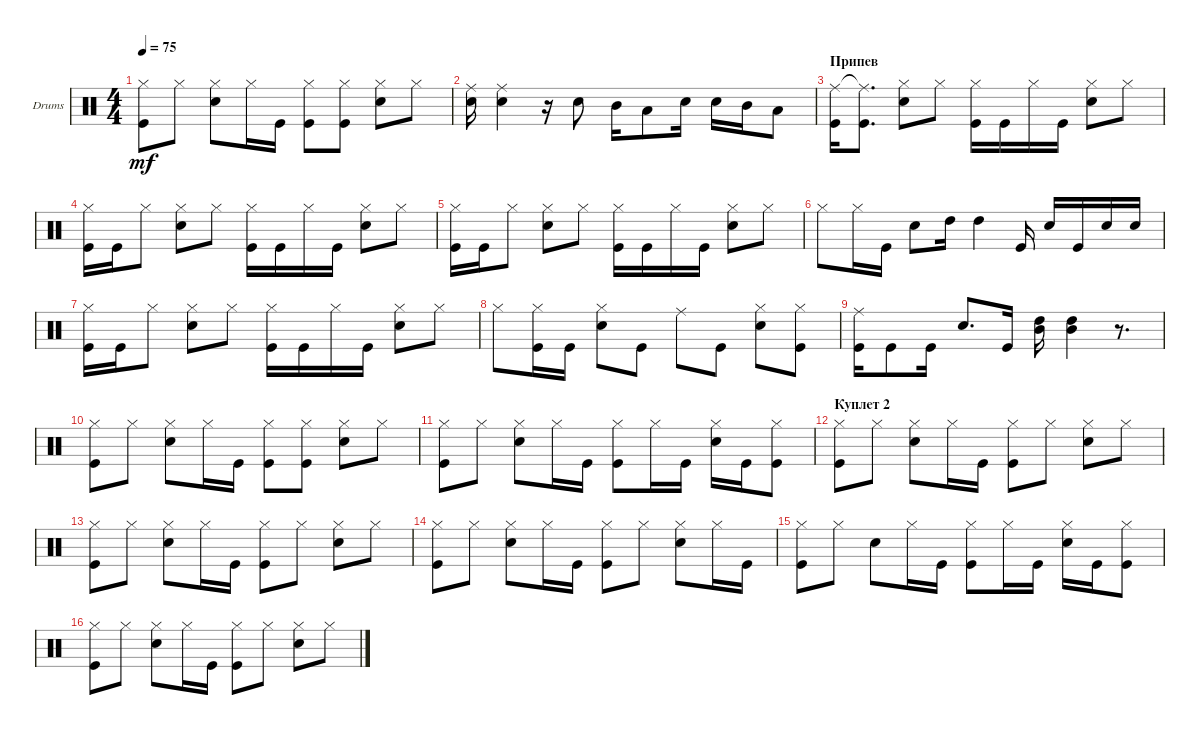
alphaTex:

\defaultSystemsLayout 4
\bracketExtendMode groupsimilarinstruments
\firstSystemTrackNameOrientation horizontal
\otherSystemsTrackNameOrientation horizontal
\track ("Барабаны" "Drums") {solo instrument percussion}
\staff {score}
\articulation defaults
\ts (4 4)
\tempo 75
\clef neutral
\ks c
("Kick (hit)" "Hi-Hat (closed)").8{dy mf} "Hi-Hat (closed)".8 ("Snare (hit) 2" "Hi-Hat (closed)").8 "Hi-Hat (closed)".16 "Kick (hit)".16 ("Kick (hit)" "Hi-Hat (closed)").8 ("Kick (hit)" "Hi-Hat (closed)").8 ("Snare (hit) 2" "Hi-Hat (closed)").8 "Hi-Hat (closed)".8 |
("Snare (hit) 2" "Ride (middle)").16 ("Snare (hit) 2" "Ride (middle)").4 r.16 "Snare (hit) 2".8 "Mid Tom (hit)".16 "Low Tom (hit)".8 "Snare (hit) 2".16 "Snare (hit) 2".16 "Mid Tom (hit)".16 "Low Tom (hit)".8 |
\section ("" "Припев")
\scale
0.321839 ("Kick (hit)" "Ride (middle)").16 ("Kick (hit)" "Ride (middle)"{t}).8{d} ("Snare (hit) 2" "Hi-Hat (closed)").8 "Hi-Hat (closed)".8 ("Kick (hit)" "Hi-Hat (closed)").16 "Kick (hit)".16 "Hi-Hat (closed)".16 "Kick (hit)".16 ("Snare (hit) 2" "Hi-Hat (closed)").8 "Hi-Hat (closed)".8 |
\scale
0.333333 ("Kick (hit)" "Hi-Hat (closed)").16 "Kick (hit)".16 "Hi-Hat (closed)".8 ("Snare (hit) 2" "Hi-Hat (closed)").8 "Hi-Hat (closed)".8 ("Kick (hit)" "Hi-Hat (closed)").16 "Kick (hit)".16 "Hi-Hat (closed)".16 "Kick (hit)".16 ("Snare (hit) 2" "Hi-Hat (closed)").8 "Hi-Hat (closed)".8 |
\scale
0.333333 ("Kick (hit)" "Hi-Hat (closed)").16 "Kick (hit)".16 "Hi-Hat (closed)".8 ("Snare (hit) 2" "Hi-Hat (closed)").8 "Hi-Hat (closed)".8 ("Kick (hit)" "Hi-Hat (closed)").16 "Kick (hit)".16 "Hi-Hat (closed)".16 "Kick (hit)".16 ("Snare (hit) 2" "Hi-Hat (closed)").8 "Hi-Hat (closed)".8 |
\scale
0.333333 "Hi-Hat (closed)".8 "Hi-Hat (closed)".16 "Kick (hit)".16 "Snare (hit) 2".8 "High Tom (hit)".16 "High Tom (hit)".4 "Kick (hit)".16 "Snare (hit) 2".16 "Kick (hit)".16 "Snare (hit) 2".16 "Snare (hit) 2".16 |
\scale
0.333333 ("Kick (hit)" "Hi-Hat (closed)").16 "Kick (hit)".16 "Hi-Hat (closed)".8 ("Snare (hit) 2" "Hi-Hat (closed)").8 "Hi-Hat (closed)".8 ("Kick (hit)" "Hi-Hat (closed)").16 "Kick (hit)".16 "Hi-Hat (closed)".16 "Kick (hit)".16 ("Snare (hit) 2" "Hi-Hat (closed)").8 "Hi-Hat (closed)".8 |
\scale
0.333333 "Hi-Hat (closed)".8 ("Kick (hit)" "Hi-Hat (closed)").16 "Kick (hit)".16 ("Snare (hit) 2" "Hi-Hat (closed)").8 "Kick (hit)".8 "Ride (middle)".8 "Kick (hit)".8 ("Snare (hit) 2" "Hi-Hat (closed)").8 ("Kick (hit)" "Hi-Hat (closed)").8 |
\scale
0.333333 ("Kick (hit)" "Ride (middle)").16 "Kick (hit)".8 "Kick (hit)".16 "Snare (hit) 2".8{d} "Kick (hit)".16 ("High Tom (hit)" "Mid Tom (hit)").16 ("Mid Tom (hit)" "High Tom (hit)").4 r.8{d} |
\scale
0.333333 ("Kick (hit)" "Hi-Hat (closed)").8 "Hi-Hat (closed)".8 ("Snare (hit) 2" "Hi-Hat (closed)").8 "Hi-Hat (closed)".16 "Kick (hit)".16 ("Kick (hit)" "Hi-Hat (closed)").8 ("Kick (hit)" "Hi-Hat (closed)").8 ("Snare (hit) 2" "Hi-Hat (closed)").8 "Hi-Hat (closed)".8 |
\scale
0.333333 ("Kick (hit)" "Hi-Hat (closed)").8 "Hi-Hat (closed)".8 ("Snare (hit) 2" "Hi-Hat (closed)").8 "Hi-Hat (closed)".16 "Kick (hit)".16 ("Kick (hit)" "Hi-Hat (closed)").8 "Hi-Hat (closed)".16 "Kick (hit)".16 ("Snare (hit) 2" "Hi-Hat (closed)").16 "Kick (hit)".16 ("Kick (hit)" "Hi-Hat (closed)").8 |
\section ("" "Куплет 2")
\scale
0.333333 ("Kick (hit)" "Hi-Hat (closed)").8 "Hi-Hat (closed)".8 ("Snare (hit) 2" "Hi-Hat (closed)").8 "Hi-Hat (closed)".16 "Kick (hit)".16 ("Kick (hit)" "Hi-Hat (closed)").8 "Hi-Hat (closed)".8 ("Snare (hit) 2" "Hi-Hat (closed)").8 "Hi-Hat (closed)".8 |
\scale
0.333333 ("Kick (hit)" "Hi-Hat (closed)").8 "Hi-Hat (closed)".8 ("Snare (hit) 2" "Hi-Hat (closed)").8 "Hi-Hat (closed)".16 "Kick (hit)".16 ("Kick (hit)" "Hi-Hat (closed)").8 "Hi-Hat (closed)".8 ("Snare (hit) 2" "Hi-Hat (closed)").8 "Hi-Hat (closed)".8 |
\scale
0.333333 ("Kick (hit)" "Hi-Hat (closed)").8 "Hi-Hat (closed)".8 ("Snare (hit) 2" "Hi-Hat (closed)").8 "Hi-Hat (closed)".16 "Kick (hit)".16 ("Kick (hit)" "Hi-Hat (closed)").8 "Hi-Hat (closed)".8 ("Snare (hit) 2" "Hi-Hat (closed)").8 "Hi-Hat (closed)".16 "Kick (hit)".16 |
\scale
0.333333 ("Kick (hit)" "Hi-Hat (closed)").8 "Hi-Hat (closed)".8 "Snare (hit) 2".8 "Hi-Hat (closed)".16 "Kick (hit)".16 ("Kick (hit)" "Hi-Hat (closed)").8 "Hi-Hat (closed)".16 "Kick (hit)".16 ("Snare (hit) 2" "Hi-Hat (closed)").16 "Kick (hit)".16 ("Kick (hit)" "Hi-Hat (closed)").8 |
\scale
0.333333 ("Kick (hit)" "Hi-Hat (closed)").8 "Hi-Hat (closed)".8 ("Snare (hit) 2" "Hi-Hat (closed)").8 "Hi-Hat (closed)".16 "Kick (hit)".16 ("Kick (hit)" "Hi-Hat (closed)").8 "Hi-Hat (closed)".8 ("Snare (hit) 2" "Hi-Hat (closed)").8 "Hi-Hat (closed)".8
